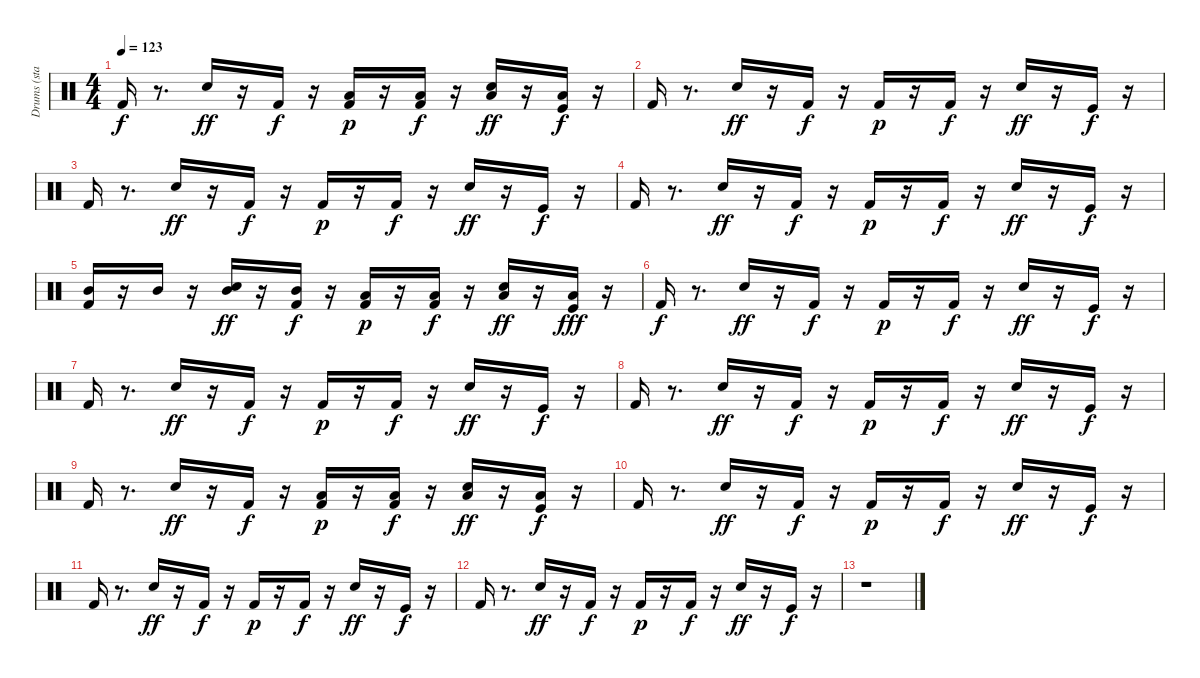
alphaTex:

\track ("Drums (standard set)" "Drums (sta") {instrument percussion}
\staff {score}
\articulation defaults
\ts (4 4)
\tempo 123
\clef neutral
\ks c "Kick (hit) 2".16{dy f}
r.8{d} "Snare (hit) 2".16{dy ff} r.16 "Kick (hit) 2".16{dy f} r.16 ("Kick (hit) 2" "Low Tom (hit)").16{dy p} r.16 ("Kick (hit) 2" "Low Tom (hit)").16{dy f} r.16 ("Snare (hit) 2" "Low Tom (hit)").16{dy ff} r.16 ("Kick (hit)" "Low Tom (hit)").16{dy f} r.16 |
"Kick (hit) 2".16 r.8{d} "Snare (hit) 2".16{dy ff} r.16 "Kick (hit) 2".16{dy f} r.16 "Kick (hit) 2".16{dy p} r.16 "Kick (hit) 2".16{dy f} r.16 "Snare (hit) 2".16{dy ff} r.16 "Kick (hit)".16{dy f} r.16 |
"Kick (hit) 2".16 r.8{d} "Snare (hit) 2".16{dy ff} r.16 "Kick (hit) 2".16{dy f} r.16 "Kick (hit) 2".16{dy p} r.16 "Kick (hit) 2".16{dy f} r.16 "Snare (hit) 2".16{dy ff} r.16 "Kick (hit)".16{dy f} r.16 |
"Kick (hit) 2".16 r.8{d} "Snare (hit) 2".16{dy ff} r.16 "Kick (hit) 2".16{dy f} r.16 "Kick (hit) 2".16{dy p} r.16 "Kick (hit) 2".16{dy f} r.16 "Snare (hit) 2".16{dy ff} r.16 "Kick (hit)".16{dy f} r.16 |
("Kick (hit) 2" "Mid Tom (hit)").16 r.16 "Mid Tom (hit)".16 r.16 ("Snare (hit) 2" "Mid Tom (hit)").16{dy ff} r.16 ("Kick (hit) 2" "Mid Tom (hit)").16{dy f} r.16 ("Kick (hit) 2" "Low Tom (hit)").16{dy p} r.16 ("Kick (hit) 2" "Low Tom (hit)").16{dy f} r.16 ("Snare (hit) 2" "Low Tom (hit)").16{dy ff} r.16 ("Kick (hit)" "Low Tom (hit)").16{dy fff} r.16 |
"Kick (hit) 2".16{dy f} r.8{d} "Snare (hit) 2".16{dy ff} r.16 "Kick (hit) 2".16{dy f} r.16 "Kick (hit) 2".16{dy p} r.16 "Kick (hit) 2".16{dy f} r.16 "Snare (hit) 2".16{dy ff} r.16 "Kick (hit)".16{dy f} r.16 |
"Kick (hit) 2".16 r.8{d} "Snare (hit) 2".16{dy ff} r.16 "Kick (hit) 2".16{dy f} r.16 "Kick (hit) 2".16{dy p} r.16 "Kick (hit) 2".16{dy f} r.16 "Snare (hit) 2".16{dy ff} r.16 "Kick (hit)".16{dy f} r.16 |
"Kick (hit) 2".16 r.8{d} "Snare (hit) 2".16{dy ff} r.16 "Kick (hit) 2".16{dy f} r.16 "Kick (hit) 2".16{dy p} r.16 "Kick (hit) 2".16{dy f} r.16 "Snare (hit) 2".16{dy ff} r.16 "Kick (hit)".16{dy f} r.16 |
"Kick (hit) 2".16 r.8{d} "Snare (hit) 2".16{dy ff} r.16 "Kick (hit) 2".16{dy f} r.16 ("Kick (hit) 2" "Low Tom (hit)").16{dy p} r.16 ("Kick (hit) 2" "Low Tom (hit)").16{dy f} r.16 ("Snare (hit) 2" "Low Tom (hit)").16{dy ff} r.16 ("Kick (hit)" "Low Tom (hit)").16{dy f} r.16 |
"Kick (hit) 2".16 r.8{d} "Snare (hit) 2".16{dy ff} r.16 "Kick (hit) 2".16{dy f} r.16 "Kick (hit) 2".16{dy p} r.16 "Kick (hit) 2".16{dy f} r.16 "Snare (hit) 2".16{dy ff} r.16 "Kick (hit)".16{dy f} r.16 |
"Kick (hit) 2".16 r.8{d} "Snare (hit) 2".16{dy ff} r.16 "Kick (hit) 2".16{dy f} r.16 "Kick (hit) 2".16{dy p} r.16 "Kick (hit) 2".16{dy f} r.16 "Snare (hit) 2".16{dy ff} r.16 "Kick (hit)".16{dy f} r.16 |
"Kick (hit) 2".16 r.8{d} "Snare (hit) 2".16{dy ff} r.16 "Kick (hit) 2".16{dy f} r.16 "Kick (hit) 2".16{dy p} r.16 "Kick (hit) 2".16{dy f} r.16 "Snare (hit) 2".16{dy ff} r.16 "Kick (hit)".16{dy f} r.16 |
r.1
